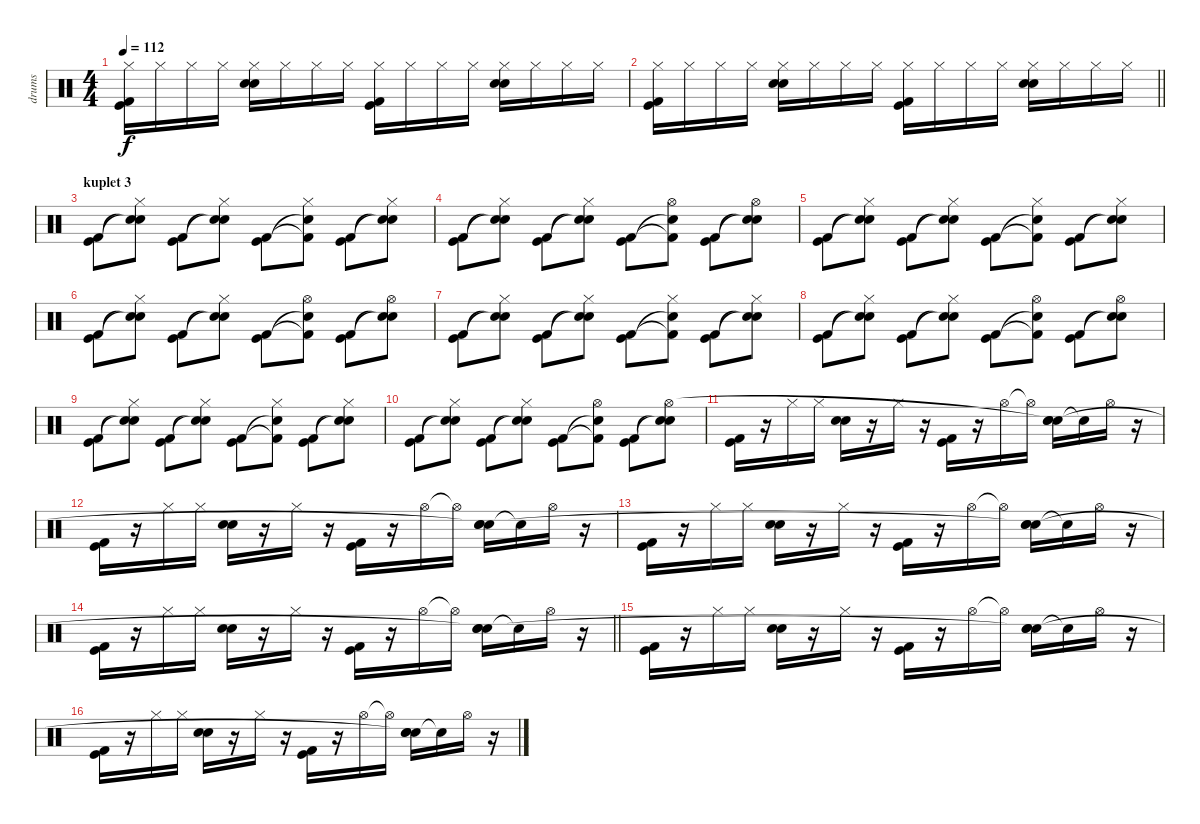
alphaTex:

\track ("drums" "drums") {instrument percussion}
\staff {score}
\articulation defaults
\ts (4 4)
\tempo 112
\clef neutral
\ks c
("Hi-Hat (closed)" "Kick (hit) 2" "Kick (hit)").16{dy f} "Hi-Hat (closed)".16 "Hi-Hat (closed)".16 "Hi-Hat (closed)".16 ("Hi-Hat (closed)" "Snare (hit) 2" "Electric Snare (hit)").16 "Hi-Hat (closed)".16 "Hi-Hat (closed)".16 "Hi-Hat (closed)".16 ("Hi-Hat (closed)" "Kick (hit) 2" "Kick (hit)").16 "Hi-Hat (closed)".16 "Hi-Hat (closed)".16 "Hi-Hat (closed)".16 ("Hi-Hat (closed)" "Snare (hit) 2" "Electric Snare (hit)").16 "Hi-Hat (closed)".16 "Hi-Hat (closed)".16 "Hi-Hat (closed)".16 |
\barLineRight lightlight
("Hi-Hat (closed)" "Kick (hit) 2" "Kick (hit)").16 "Hi-Hat (closed)".16 "Hi-Hat (closed)".16 "Hi-Hat (closed)".16 ("Hi-Hat (closed)" "Snare (hit) 2" "Electric Snare (hit)").16 "Hi-Hat (closed)".16 "Hi-Hat (closed)".16 "Hi-Hat (closed)".16 ("Hi-Hat (closed)" "Kick (hit) 2" "Kick (hit)").16 "Hi-Hat (closed)".16 "Hi-Hat (closed)".16 "Hi-Hat (closed)".16 ("Hi-Hat (closed)" "Snare (hit) 2" "Electric Snare (hit)").16 "Hi-Hat (closed)".16 "Hi-Hat (closed)".16 "Hi-Hat (closed)".16 |
\section ("" "kuplet 3")
("Kick (hit)" "Kick (hit) 2").8 ("Snare (hit)"{t} "Snare (hit)"{t} "Hi-Hat (closed)").8 ("Kick (hit)" "Kick (hit) 2").8 ("Snare (hit)"{t} "Snare (hit)"{t} "Hi-Hat (closed)").8 ("Kick (hit)" "Kick (hit) 2").8 ("Snare (hit)"{t} "Kick (hit) 2"{t} "Hi-Hat (closed)").8 ("Kick (hit)" "Kick (hit) 2").8 ("Snare (hit)"{t} "Snare (hit)"{t} "Hi-Hat (closed)").8 |
("Kick (hit)" "Kick (hit) 2").8 ("Snare (hit)"{t} "Snare (hit)"{t} "Hi-Hat (closed)").8 ("Kick (hit)" "Kick (hit) 2").8 ("Snare (hit)"{t} "Snare (hit)"{t} "Hi-Hat (closed)").8 ("Kick (hit)" "Kick (hit) 2").8 ("Snare (hit)"{t} "Kick (hit) 2"{t} "Hi-Hat (open)").8 ("Kick (hit)" "Kick (hit) 2").8 ("Snare (hit)"{t} "Snare (hit)"{t} "Hi-Hat (open)").8 |
("Kick (hit)" "Kick (hit) 2").8 ("Snare (hit)"{t} "Snare (hit)"{t} "Hi-Hat (closed)").8 ("Kick (hit)" "Kick (hit) 2").8 ("Snare (hit)"{t} "Snare (hit)"{t} "Hi-Hat (closed)").8 ("Kick (hit)" "Kick (hit) 2").8 ("Snare (hit)"{t} "Kick (hit) 2"{t} "Hi-Hat (closed)").8 ("Kick (hit)" "Kick (hit) 2").8 ("Snare (hit)"{t} "Snare (hit)"{t} "Hi-Hat (closed)").8 |
("Kick (hit)" "Kick (hit) 2").8 ("Snare (hit)"{t} "Snare (hit)"{t} "Hi-Hat (closed)").8 ("Kick (hit)" "Kick (hit) 2").8 ("Snare (hit)"{t} "Snare (hit)"{t} "Hi-Hat (closed)").8 ("Kick (hit)" "Kick (hit) 2").8 ("Snare (hit)"{t} "Kick (hit) 2"{t} "Hi-Hat (open)").8 ("Kick (hit)" "Kick (hit) 2").8 ("Snare (hit)"{t} "Snare (hit)"{t} "Hi-Hat (open)").8 |
("Kick (hit)" "Kick (hit) 2").8 ("Snare (hit)"{t} "Snare (hit)"{t} "Hi-Hat (closed)").8 ("Kick (hit)" "Kick (hit) 2").8 ("Snare (hit)"{t} "Snare (hit)"{t} "Hi-Hat (closed)").8 ("Kick (hit)" "Kick (hit) 2").8 ("Snare (hit)"{t} "Kick (hit) 2"{t} "Hi-Hat (closed)").8 ("Kick (hit)" "Kick (hit) 2").8 ("Snare (hit)"{t} "Snare (hit)"{t} "Hi-Hat (closed)").8 |
("Kick (hit)" "Kick (hit) 2").8 ("Snare (hit)"{t} "Snare (hit)"{t} "Hi-Hat (closed)").8 ("Kick (hit)" "Kick (hit) 2").8 ("Snare (hit)"{t} "Snare (hit)"{t} "Hi-Hat (closed)").8 ("Kick (hit)" "Kick (hit) 2").8 ("Snare (hit)"{t} "Kick (hit) 2"{t} "Hi-Hat (open)").8 ("Kick (hit)" "Kick (hit) 2").8 ("Snare (hit)"{t} "Snare (hit)"{t} "Hi-Hat (open)").8 |
("Kick (hit)" "Kick (hit) 2").8 ("Snare (hit)"{t} "Snare (hit)"{t} "Hi-Hat (closed)").8 ("Kick (hit)" "Kick (hit) 2").8 ("Snare (hit)"{t} "Snare (hit)"{t} "Hi-Hat (closed)").8 ("Kick (hit)" "Kick (hit) 2").8 ("Snare (hit)"{t} "Kick (hit) 2"{t} "Hi-Hat (closed)").8 ("Kick (hit)" "Kick (hit) 2").8 ("Snare (hit)"{t} "Snare (hit)"{t} "Hi-Hat (closed)").8 |
("Kick (hit)" "Kick (hit) 2").8 ("Snare (hit)"{t} "Snare (hit)"{t} "Hi-Hat (closed)").8 ("Kick (hit)" "Kick (hit) 2").8 ("Snare (hit)"{t} "Snare (hit)"{t} "Hi-Hat (closed)").8 ("Kick (hit)" "Kick (hit) 2").8 ("Snare (hit)"{t} "Kick (hit) 2"{t} "Hi-Hat (open)").8 ("Kick (hit)" "Kick (hit) 2").8 ("Snare (hit)"{t} "Snare (hit)"{t} "Hi-Hat (open)").8 |
("Kick (hit) 2" "Kick (hit)").16 r.16 "Hi-Hat (closed)".16 "Hi-Hat (closed)".16 ("Snare (hit) 2" "Electric Snare (hit)").16 r.16 "Hi-Hat (closed)".16 r.16 ("Kick (hit) 2" "Kick (hit)").16 r.16 "Hi-Hat (open)".16 "Hi-Hat (open)"{t}.16 ("Snare (hit) 2" "Electric Snare (hit)" "Snare (hit)"{t}).16 "Snare (hit)"{t}.16 "Hi-Hat (open)".16 r.16 |
("Kick (hit) 2" "Kick (hit)").16 r.16 "Hi-Hat (closed)".16 "Hi-Hat (closed)".16 ("Snare (hit) 2" "Electric Snare (hit)").16 r.16 "Hi-Hat (closed)".16 r.16 ("Kick (hit) 2" "Kick (hit)").16 r.16 "Hi-Hat (open)".16 "Hi-Hat (open)"{t}.16 ("Snare (hit) 2" "Electric Snare (hit)" "Snare (hit)"{t}).16 "Snare (hit)"{t}.16 "Hi-Hat (open)".16 r.16 |
("Kick (hit) 2" "Kick (hit)").16 r.16 "Hi-Hat (closed)".16 "Hi-Hat (closed)".16 ("Snare (hit) 2" "Electric Snare (hit)").16 r.16 "Hi-Hat (closed)".16 r.16 ("Kick (hit) 2" "Kick (hit)").16 r.16 "Hi-Hat (open)".16 "Hi-Hat (open)"{t}.16 ("Snare (hit) 2" "Electric Snare (hit)" "Snare (hit)"{t}).16 "Snare (hit)"{t}.16 "Hi-Hat (open)".16 r.16 |
\barLineRight lightlight
("Kick (hit) 2" "Kick (hit)").16 r.16 "Hi-Hat (closed)".16 "Hi-Hat (closed)".16 ("Snare (hit) 2" "Electric Snare (hit)").16 r.16 "Hi-Hat (closed)".16 r.16 ("Kick (hit) 2" "Kick (hit)").16 r.16 "Hi-Hat (open)".16 "Hi-Hat (open)"{t}.16 ("Snare (hit) 2" "Electric Snare (hit)" "Snare (hit)"{t}).16 "Snare (hit)"{t}.16 "Hi-Hat (open)".16 r.16 |
("Kick (hit) 2" "Kick (hit)").16 r.16 "Hi-Hat (closed)".16 "Hi-Hat (closed)".16 ("Snare (hit) 2" "Electric Snare (hit)").16 r.16 "Hi-Hat (closed)".16 r.16 ("Kick (hit) 2" "Kick (hit)").16 r.16 "Hi-Hat (open)".16 "Hi-Hat (open)"{t}.16 ("Snare (hit) 2" "Electric Snare (hit)" "Snare (hit)"{t}).16 "Snare (hit)"{t}.16 "Hi-Hat (open)".16 r.16 |
("Kick (hit) 2" "Kick (hit)").16 r.16 "Hi-Hat (closed)".16 "Hi-Hat (closed)".16 ("Snare (hit) 2" "Electric Snare (hit)").16 r.16 "Hi-Hat (closed)".16 r.16 ("Kick (hit) 2" "Kick (hit)").16 r.16 "Hi-Hat (open)".16 "Hi-Hat (open)"{t}.16 ("Snare (hit) 2" "Electric Snare (hit)" "Snare (hit)"{t}).16 "Snare (hit)"{t}.16 "Hi-Hat (open)".16 r.16
